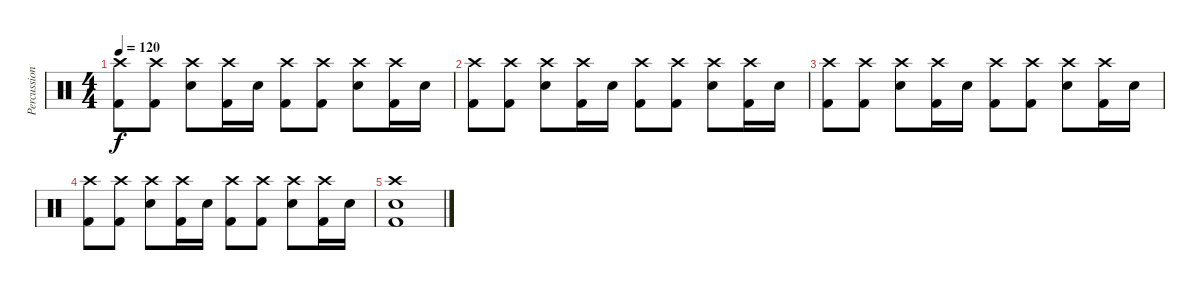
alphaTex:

\track ("Percussion" "Percussion") {instrument percussion}
\staff {score}
\articulation defaults
\ts (4 4)
\tempo 120
\clef neutral
\ks c
("Crash high (hit)" "Kick (hit) 2").8{dy f} ("Crash high (hit)" "Kick (hit) 2").8 ("Crash high (hit)" "Electric Snare (hit)").8 ("Crash high (hit)" "Kick (hit) 2").16 "Electric Snare (hit)".16 ("Crash high (hit)" "Kick (hit) 2").8 ("Crash high (hit)" "Kick (hit) 2").8 ("Crash high (hit)" "Electric Snare (hit)").8 ("Crash high (hit)" "Kick (hit) 2").16 "Electric Snare (hit)".16 |
("Crash high (hit)" "Kick (hit) 2").8 ("Crash high (hit)" "Kick (hit) 2").8 ("Crash high (hit)" "Electric Snare (hit)").8 ("Crash high (hit)" "Kick (hit) 2").16 "Electric Snare (hit)".16 ("Crash high (hit)" "Kick (hit) 2").8 ("Crash high (hit)" "Kick (hit) 2").8 ("Crash high (hit)" "Electric Snare (hit)").8 ("Crash high (hit)" "Kick (hit) 2").16 "Electric Snare (hit)".16 |
("Crash high (hit)" "Kick (hit) 2").8 ("Crash high (hit)" "Kick (hit) 2").8 ("Crash high (hit)" "Electric Snare (hit)").8 ("Crash high (hit)" "Kick (hit) 2").16 "Electric Snare (hit)".16 ("Crash high (hit)" "Kick (hit) 2").8 ("Crash high (hit)" "Kick (hit) 2").8 ("Crash high (hit)" "Electric Snare (hit)").8 ("Crash high (hit)" "Kick (hit) 2").16 "Electric Snare (hit)".16 |
("Crash high (hit)" "Kick (hit) 2").8 ("Crash high (hit)" "Kick (hit) 2").8 ("Crash high (hit)" "Electric Snare (hit)").8 ("Crash high (hit)" "Kick (hit) 2").16 "Electric Snare (hit)".16 ("Crash high (hit)" "Kick (hit) 2").8 ("Crash high (hit)" "Kick (hit) 2").8 ("Crash high (hit)" "Electric Snare (hit)").8 ("Crash high (hit)" "Kick (hit) 2").16 "Electric Snare (hit)".16 |
("Crash high (hit)" "Electric Snare (hit)" "Kick (hit) 2").1
